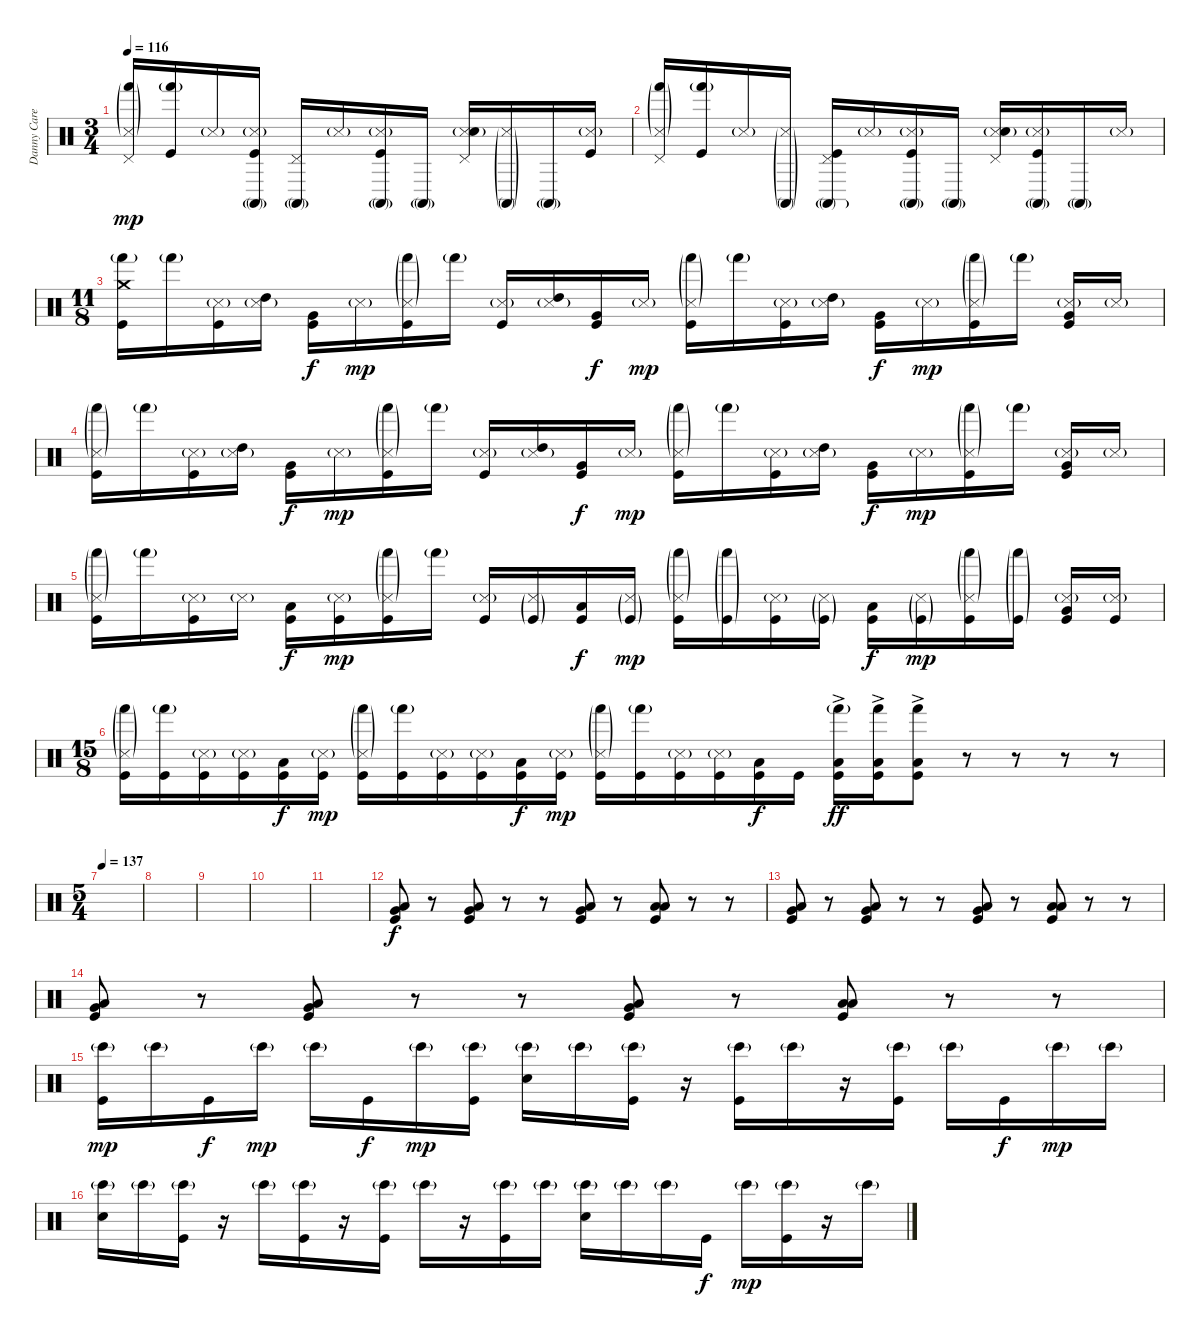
\track ("Danny Carey (drum)" "Danny Care") {instrument percussion}
\staff {score}
\articulation defaults
\ts (3 4)
\tempo 116
\clef neutral
\ks c
("Hand (hit)"{g} "Pedal Hi-Hat (hit)" "Snare (side stick) 3"{g}).16{dy mp} ("Hand (hit)"{g} "Kick (hit)").16 "Snare (side stick) 3"{g}.16 ("Conga high (mute)"{g} "Snare (side stick) 3"{g} "Kick (hit)").16 ("Conga high (mute)"{g} "Pedal Hi-Hat (hit)").16 "Snare (side stick) 3"{g}.16 ("Conga high (mute)"{g} "Snare (side stick) 3"{g} "Kick (hit)").16 "Conga high (mute)"{g}.16 ("Pedal Hi-Hat (hit)" "Snare (side stick) 3"{g} "Snare (hit) 2").16 ("Conga high (mute)"{g} "Snare (side stick) 3"{g}).16 "Conga high (mute)"{g}.16 ("Snare (side stick) 3"{g} "Kick (hit)").16 |
("Hand (hit)"{g} "Pedal Hi-Hat (hit)" "Snare (side stick) 3"{g}).16 ("Hand (hit)"{g} "Kick (hit)").16 "Snare (side stick) 3"{g}.16 ("Conga high (mute)"{g} "Snare (side stick) 3"{g}).16 ("Conga high (mute)"{g} "Pedal Hi-Hat (hit)" "Kick (hit)").16 "Snare (side stick) 3"{g}.16 ("Conga high (mute)"{g} "Snare (side stick) 3"{g} "Kick (hit)").16 "Conga high (mute)"{g}.16 ("Pedal Hi-Hat (hit)" "Snare (side stick) 3"{g} "Snare (hit) 2").16 ("Conga high (mute)"{g} "Snare (side stick) 3"{g} "Kick (hit)").16 "Conga high (mute)"{g}.16 "Snare (side stick) 3"{g}.16 |
\ts (11 8)
("Hand (hit)"{g} "Crash medium (hit)" "Kick (hit)").16 "Hand (hit)"{g}.16 ("Snare (side stick) 3"{g} "Kick (hit)").16 ("High Tom (hit)" "Snare (side stick) 3"{g}).16 ("Very Low Tom (hit)" "Kick (hit)").16{dy f} "Snare (side stick) 3"{g}.16{dy mp} ("Hand (hit)"{g} "Snare (side stick) 3"{g} "Kick (hit)").16 "Hand (hit)"{g}.16 ("Snare (side stick) 3"{g} "Kick (hit)").16 ("High Tom (hit)" "Snare (side stick) 3"{g}).16 ("Very Low Tom (hit)" "Kick (hit)").16{dy f} "Snare (side stick) 3"{g}.16{dy mp} ("Hand (hit)"{g} "Snare (side stick) 3"{g} "Kick (hit)").16 "Hand (hit)"{g}.16 ("Snare (side stick) 3"{g} "Kick (hit)").16 ("High Tom (hit)" "Snare (side stick) 3"{g}).16 ("Very Low Tom (hit)" "Kick (hit)").16{dy f} "Snare (side stick) 3"{g}.16{dy mp} ("Hand (hit)"{g} "Snare (side stick) 3"{g} "Kick (hit)").16 "Hand (hit)"{g}.16 ("Snare (side stick) 3"{g} "Very Low Tom (hit)" "Kick (hit)").16 "Snare (side stick) 3"{g}.16 |
("Hand (hit)"{g} "Snare (side stick) 3"{g} "Kick (hit)").16 "Hand (hit)"{g}.16 ("Snare (side stick) 3"{g} "Kick (hit)").16 ("High Tom (hit)" "Snare (side stick) 3"{g}).16 ("Very Low Tom (hit)" "Kick (hit)").16{dy f} "Snare (side stick) 3"{g}.16{dy mp} ("Hand (hit)"{g} "Snare (side stick) 3"{g} "Kick (hit)").16 "Hand (hit)"{g}.16 ("Snare (side stick) 3"{g} "Kick (hit)").16 ("High Tom (hit)" "Snare (side stick) 3"{g}).16 ("Very Low Tom (hit)" "Kick (hit)").16{dy f} "Snare (side stick) 3"{g}.16{dy mp} ("Hand (hit)"{g} "Snare (side stick) 3"{g} "Kick (hit)").16 "Hand (hit)"{g}.16 ("Snare (side stick) 3"{g} "Kick (hit)").16 ("High Tom (hit)" "Snare (side stick) 3"{g}).16 ("Very Low Tom (hit)" "Kick (hit)").16{dy f} "Snare (side stick) 3"{g}.16{dy mp} ("Hand (hit)"{g} "Snare (side stick) 3"{g} "Kick (hit)").16 "Hand (hit)"{g}.16 ("Snare (side stick) 3"{g} "Very Low Tom (hit)" "Kick (hit)").16 "Snare (side stick) 3"{g}.16 |
("Hand (hit)"{g} "Snare (side stick) 3"{g} "Kick (hit)").16 "Hand (hit)"{g}.16 ("Snare (side stick) 3"{g} "Kick (hit)").16 "Snare (side stick) 3"{g}.16 ("Low Tom (hit)" "Kick (hit)").16{dy f} ("Snare (side stick) 3"{g} "Kick (hit)").16{dy mp} ("Hand (hit)"{g} "Snare (side stick) 3"{g} "Kick (hit)").16 "Hand (hit)"{g}.16 ("Snare (side stick) 3"{g} "Kick (hit)").16 ("Snare (side stick) 3"{g} "Kick (hit)"{g}).16 ("Low Tom (hit)" "Kick (hit)").16{dy f} ("Snare (side stick) 3"{g} "Kick (hit)"{g}).16{dy mp} ("Hand (hit)"{g} "Snare (side stick) 3"{g} "Kick (hit)").16 ("Hand (hit)"{g} "Kick (hit)"{g}).16 ("Snare (side stick) 3"{g} "Kick (hit)").16 ("Snare (side stick) 3"{g} "Kick (hit)"{g}).16 ("Low Tom (hit)" "Kick (hit)").16{dy f} ("Snare (side stick) 3"{g} "Kick (hit)"{g}).16{dy mp} ("Hand (hit)"{g} "Snare (side stick) 3"{g} "Kick (hit)").16 ("Hand (hit)"{g} "Kick (hit)"{g}).16 ("Snare (side stick) 3"{g} "Very Low Tom (hit)" "Kick (hit)").16 ("Snare (side stick) 3"{g} "Kick (hit)").16 |
\ts (15 8)
("Hand (hit)"{g} "Snare (side stick) 3"{g} "Kick (hit)").16 ("Hand (hit)"{g} "Kick (hit)").16 ("Snare (side stick) 3"{g} "Kick (hit)").16 ("Snare (side stick) 3"{g} "Kick (hit)").16 ("Low Tom (hit)" "Kick (hit)").16{dy f} ("Snare (side stick) 3"{g} "Kick (hit)").16{dy mp} ("Hand (hit)"{g} "Snare (side stick) 3"{g} "Kick (hit)").16 ("Hand (hit)"{g} "Kick (hit)").16 ("Snare (side stick) 3"{g} "Kick (hit)").16 ("Snare (side stick) 3"{g} "Kick (hit)").16 ("Low Tom (hit)" "Kick (hit)").16{dy f} ("Snare (side stick) 3"{g} "Kick (hit)").16{dy mp} ("Hand (hit)"{g} "Snare (side stick) 3"{g} "Kick (hit)").16 ("Hand (hit)"{g} "Kick (hit)").16 ("Snare (side stick) 3"{g} "Kick (hit)").16 ("Snare (side stick) 3"{g} "Kick (hit)").16 ("Low Tom (hit)" "Kick (hit)").16{dy f} "Kick (hit)".16 ("Hand (hit)"{g} "Low Tom (hit)"{ac} "Kick (hit)"{ac}).16{dy ff} ("Hand (hit)" "Low Tom (hit)"{ac} "Kick (hit)").16 ("Hand (hit)" "Low Tom (hit)"{ac} "Kick (hit)"{ac}).8 r.8 r.8 r.8 r.8 |
\ts (5 4)
\tempo 137
|
|
|
|
|
("Very Low Tom (hit)" "Low Floor Tom (hit)" "Kick (hit)").8{dy f} r.8 ("Low Tom (hit)" "Very Low Tom (hit)" "Kick (hit)").8 r.8 r.8 ("Very Low Tom (hit)" "Low Floor Tom (hit)" "Kick (hit)").8 r.8 ("Low Tom (hit)" "Low Floor Tom (hit)" "Kick (hit)").8 r.8 r.8 |
("Very Low Tom (hit)" "Low Floor Tom (hit)" "Kick (hit)").8 r.8 ("Low Tom (hit)" "Very Low Tom (hit)" "Kick (hit)").8 r.8 r.8 ("Very Low Tom (hit)" "Low Floor Tom (hit)" "Kick (hit)").8 r.8 ("Low Tom (hit)" "Low Floor Tom (hit)" "Kick (hit)").8 r.8 r.8 |
("Very Low Tom (hit)" "Low Floor Tom (hit)" "Kick (hit)").8 r.8 ("Low Tom (hit)" "Very Low Tom (hit)" "Kick (hit)").8 r.8 r.8 ("Very Low Tom (hit)" "Low Floor Tom (hit)" "Kick (hit)").8 r.8 ("Low Tom (hit)" "Low Floor Tom (hit)" "Kick (hit)").8 r.8 r.8 |
("Bongo High (hit)"{g} "Kick (hit)").16{dy mp} "Bongo High (hit)"{g}.16 "Kick (hit)".16{dy f} "Bongo High (hit)"{g}.16{dy mp} "Bongo High (hit)"{g}.16 "Kick (hit)".16{dy f} "Bongo High (hit)"{g}.16{dy mp} ("Bongo High (hit)"{g} "Kick (hit)").16 ("Bongo High (hit)"{g} "Snare (hit) 2").16 "Bongo High (hit)"{g}.16 ("Bongo High (hit)"{g} "Kick (hit)").16 r.16 ("Bongo High (hit)"{g} "Kick (hit)").16 "Bongo High (hit)"{g}.16 r.16 ("Bongo High (hit)"{g} "Kick (hit)").16 "Bongo High (hit)"{g}.16 "Kick (hit)".16{dy f} "Bongo High (hit)"{g}.16{dy mp} "Bongo High (hit)"{g}.16 |
("Bongo High (hit)"{g} "Snare (hit) 2").16 "Bongo High (hit)"{g}.16 ("Bongo High (hit)"{g} "Kick (hit)").16 r.16 "Bongo High (hit)"{g}.16 ("Bongo High (hit)"{g} "Kick (hit)").16 r.16 ("Bongo High (hit)"{g} "Kick (hit)").16 "Bongo High (hit)"{g}.16 r.16 ("Bongo High (hit)"{g} "Kick (hit)").16 "Bongo High (hit)"{g}.16 ("Bongo High (hit)"{g} "Snare (hit) 2").16 "Bongo High (hit)"{g}.16 "Bongo High (hit)"{g}.16 "Kick (hit)".16{dy f} "Bongo High (hit)"{g}.16{dy mp} ("Bongo High (hit)"{g} "Kick (hit)").16 r.16 "Bongo High (hit)"{g}.16
